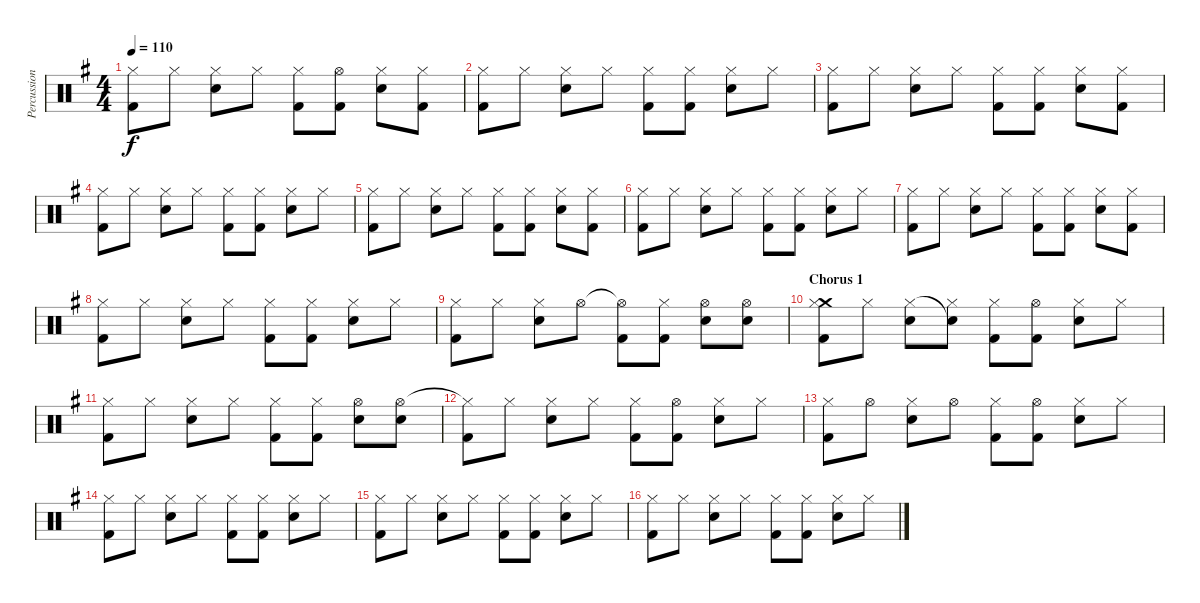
\track ("Percussion" "Percussion") {instrument percussion}
\staff {score}
\articulation defaults
\ts (4 4)
\tempo 110
\clef neutral
\ks g
("Hi-Hat (closed)" "Kick (hit) 2").8{dy f} "Hi-Hat (closed)".8 ("Hi-Hat (closed)" "Electric Snare (hit)").8 "Hi-Hat (closed)".8 ("Hi-Hat (closed)" "Kick (hit) 2").8 ("Hi-Hat (open)" "Kick (hit) 2").8 ("Hi-Hat (closed)" "Electric Snare (hit)").8 ("Hi-Hat (closed)" "Kick (hit) 2").8 |
("Hi-Hat (closed)" "Kick (hit) 2").8 "Hi-Hat (closed)".8 ("Hi-Hat (closed)" "Electric Snare (hit)").8 "Hi-Hat (closed)".8 ("Hi-Hat (closed)" "Kick (hit) 2").8 ("Hi-Hat (closed)" "Kick (hit) 2").8 ("Hi-Hat (closed)" "Electric Snare (hit)").8 "Hi-Hat (closed)".8 |
("Hi-Hat (closed)" "Kick (hit) 2").8 "Hi-Hat (closed)".8 ("Hi-Hat (closed)" "Electric Snare (hit)").8 "Hi-Hat (closed)".8 ("Hi-Hat (closed)" "Kick (hit) 2").8 ("Hi-Hat (closed)" "Kick (hit) 2").8 ("Hi-Hat (closed)" "Electric Snare (hit)").8 ("Hi-Hat (closed)" "Kick (hit) 2").8 |
("Hi-Hat (closed)" "Kick (hit) 2").8 "Hi-Hat (closed)".8 ("Hi-Hat (closed)" "Electric Snare (hit)").8 "Hi-Hat (closed)".8 ("Hi-Hat (closed)" "Kick (hit) 2").8 ("Hi-Hat (closed)" "Kick (hit) 2").8 ("Hi-Hat (closed)" "Electric Snare (hit)").8 "Hi-Hat (closed)".8 |
("Hi-Hat (closed)" "Kick (hit) 2").8 "Hi-Hat (closed)".8 ("Hi-Hat (closed)" "Electric Snare (hit)").8 "Hi-Hat (closed)".8 ("Hi-Hat (closed)" "Kick (hit) 2").8 ("Hi-Hat (closed)" "Kick (hit) 2").8 ("Hi-Hat (closed)" "Electric Snare (hit)").8 ("Hi-Hat (closed)" "Kick (hit) 2").8 |
("Hi-Hat (closed)" "Kick (hit) 2").8 "Hi-Hat (closed)".8 ("Hi-Hat (closed)" "Electric Snare (hit)").8 "Hi-Hat (closed)".8 ("Hi-Hat (closed)" "Kick (hit) 2").8 ("Hi-Hat (closed)" "Kick (hit) 2").8 ("Hi-Hat (closed)" "Electric Snare (hit)").8 "Hi-Hat (closed)".8 |
("Hi-Hat (closed)" "Kick (hit) 2").8 "Hi-Hat (closed)".8 ("Hi-Hat (closed)" "Electric Snare (hit)").8 "Hi-Hat (closed)".8 ("Hi-Hat (closed)" "Kick (hit) 2").8 ("Hi-Hat (closed)" "Kick (hit) 2").8 ("Hi-Hat (closed)" "Electric Snare (hit)").8 ("Hi-Hat (closed)" "Kick (hit) 2").8 |
("Hi-Hat (closed)" "Kick (hit) 2").8 "Hi-Hat (closed)".8 ("Hi-Hat (closed)" "Electric Snare (hit)").8 "Hi-Hat (closed)".8 ("Hi-Hat (closed)" "Kick (hit) 2").8 ("Hi-Hat (closed)" "Kick (hit) 2").8 ("Hi-Hat (closed)" "Electric Snare (hit)").8 "Hi-Hat (closed)".8 |
("Hi-Hat (closed)" "Kick (hit) 2").8 "Hi-Hat (closed)".8 ("Hi-Hat (closed)" "Electric Snare (hit)").8 "Hi-Hat (open)".8 ("Hi-Hat (open)"{t} "Kick (hit) 2").8 ("Hi-Hat (closed)" "Kick (hit) 2").8 ("Hi-Hat (open)" "Electric Snare (hit)").8 ("Hi-Hat (open)" "Electric Snare (hit)").8 |
\section ("" "Chorus 1")
("Crash medium (hit)" "Hi-Hat (closed)" "Kick (hit) 2").8 "Hi-Hat (closed)".8 ("Hi-Hat (closed)" "Electric Snare (hit)").8 ("Snare (hit)"{t} "Hi-Hat (closed)").8 ("Hi-Hat (closed)" "Kick (hit) 2").8 ("Hi-Hat (open)" "Kick (hit) 2").8 ("Hi-Hat (closed)" "Electric Snare (hit)").8 "Hi-Hat (closed)".8 |
("Hi-Hat (closed)" "Kick (hit) 2").8 "Hi-Hat (closed)".8 ("Hi-Hat (closed)" "Electric Snare (hit)").8 "Hi-Hat (closed)".8 ("Hi-Hat (closed)" "Kick (hit) 2").8 ("Hi-Hat (closed)" "Kick (hit) 2").8 ("Hi-Hat (open)" "Electric Snare (hit)").8 ("Hi-Hat (open)" "Electric Snare (hit)").8 |
("Hi-Hat (closed)"{t} "Kick (hit) 2").8 "Hi-Hat (closed)".8 ("Hi-Hat (closed)" "Electric Snare (hit)").8 "Hi-Hat (closed)".8 ("Hi-Hat (closed)" "Kick (hit) 2").8 ("Hi-Hat (open)" "Kick (hit) 2").8 ("Hi-Hat (closed)" "Electric Snare (hit)").8 "Hi-Hat (closed)".8 |
("Hi-Hat (closed)" "Kick (hit) 2").8 "Hi-Hat (open)".8 ("Hi-Hat (closed)" "Electric Snare (hit)").8 "Hi-Hat (open)".8 ("Hi-Hat (closed)" "Kick (hit) 2").8 ("Hi-Hat (open)" "Kick (hit) 2").8 ("Hi-Hat (closed)" "Electric Snare (hit)").8 "Hi-Hat (closed)".8 |
("Hi-Hat (closed)" "Kick (hit) 2").8 "Hi-Hat (closed)".8 ("Hi-Hat (closed)" "Electric Snare (hit)").8 "Hi-Hat (closed)".8 ("Hi-Hat (closed)" "Kick (hit) 2").8 ("Hi-Hat (closed)" "Kick (hit) 2").8 ("Hi-Hat (closed)" "Electric Snare (hit)").8 "Hi-Hat (closed)".8 |
("Hi-Hat (closed)" "Kick (hit) 2").8 "Hi-Hat (closed)".8 ("Hi-Hat (closed)" "Electric Snare (hit)").8 "Hi-Hat (closed)".8 ("Hi-Hat (closed)" "Kick (hit) 2").8 ("Hi-Hat (closed)" "Kick (hit) 2").8 ("Hi-Hat (closed)" "Electric Snare (hit)").8 "Hi-Hat (closed)".8 |
("Hi-Hat (closed)" "Kick (hit) 2").8 "Hi-Hat (closed)".8 ("Hi-Hat (closed)" "Electric Snare (hit)").8 "Hi-Hat (closed)".8 ("Hi-Hat (closed)" "Kick (hit) 2").8 ("Hi-Hat (closed)" "Kick (hit) 2").8 ("Hi-Hat (closed)" "Electric Snare (hit)").8 "Hi-Hat (closed)".8
